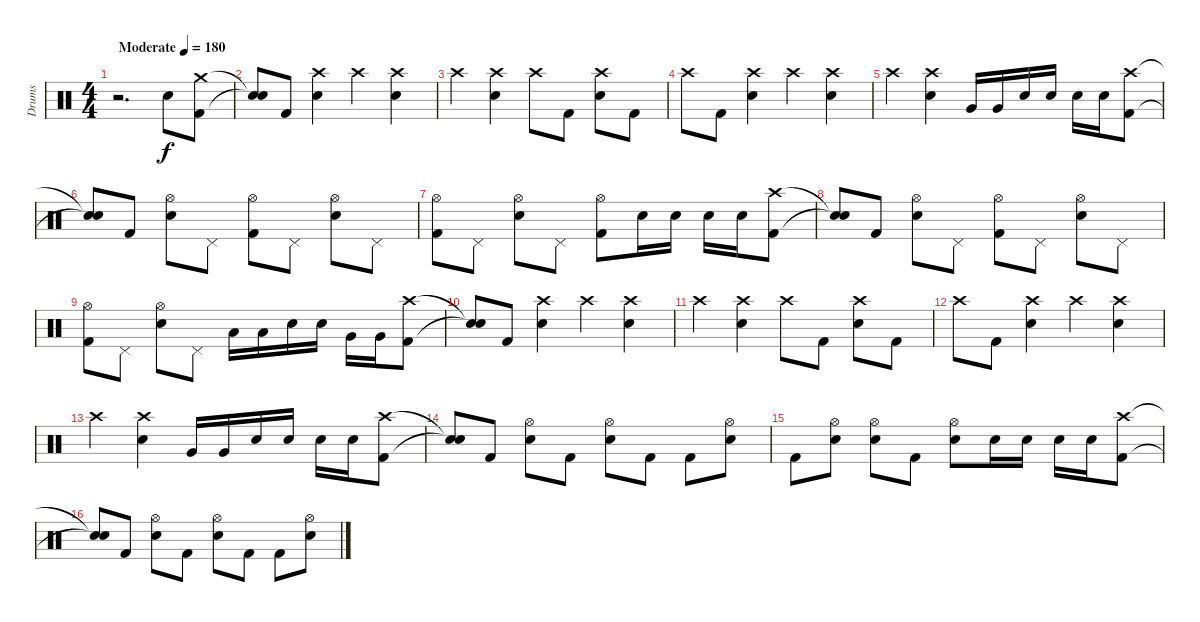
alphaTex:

\track ("Drums" "Drums") {instrument percussion}
\staff {score}
\articulation defaults
\ts (4 4)
\tempo (180 "Moderate")
\clef neutral
\ks c
r.2{d dy f} "Electric Snare (hit)".8 ("Crash medium (hit)" "Kick (hit) 2").8 |
("Snare (hit)"{t} "Snare (hit)"{t}).8 "Kick (hit) 2".8 ("Crash high (hit)" "Electric Snare (hit)").4 "Crash high (hit)".4 ("Crash high (hit)" "Electric Snare (hit)").4 |
"Crash high (hit)".4 ("Crash high (hit)" "Electric Snare (hit)").4 "Crash high (hit)".8 "Kick (hit) 2".8 ("Crash high (hit)" "Electric Snare (hit)").8 "Kick (hit) 2".8 |
"Crash high (hit)".8 "Kick (hit) 2".8 ("Crash high (hit)" "Electric Snare (hit)").4 "Crash high (hit)".4 ("Crash high (hit)" "Electric Snare (hit)").4 |
"Crash high (hit)".4 ("Crash high (hit)" "Electric Snare (hit)").4 "Very Low Tom (hit)".16 "Very Low Tom (hit)".16 "Electric Snare (hit)".16 "Electric Snare (hit)".16 "Electric Snare (hit)".16 "Electric Snare (hit)".16 ("Crash high (hit)" "Kick (hit) 2").8 |
("Snare (hit)"{t} "Snare (hit)"{t}).8 "Kick (hit) 2".8 ("Hi-Hat (open)" "Electric Snare (hit)").8 "Pedal Hi-Hat (hit)".8 ("Hi-Hat (open)" "Kick (hit) 2").8 "Pedal Hi-Hat (hit)".8 ("Hi-Hat (open)" "Electric Snare (hit)").8 "Pedal Hi-Hat (hit)".8 |
("Hi-Hat (open)" "Kick (hit) 2").8 "Pedal Hi-Hat (hit)".8 ("Hi-Hat (open)" "Electric Snare (hit)").8 "Pedal Hi-Hat (hit)".8 ("Hi-Hat (open)" "Kick (hit) 2").8 "Electric Snare (hit)".16 "Electric Snare (hit)".16 "Electric Snare (hit)".16 "Electric Snare (hit)".16 ("Crash high (hit)" "Kick (hit) 2").8 |
("Snare (hit)"{t} "Snare (hit)"{t}).8 "Kick (hit) 2".8 ("Hi-Hat (open)" "Electric Snare (hit)").8 "Pedal Hi-Hat (hit)".8 ("Hi-Hat (open)" "Kick (hit) 2").8 "Pedal Hi-Hat (hit)".8 ("Hi-Hat (open)" "Electric Snare (hit)").8 "Pedal Hi-Hat (hit)".8 |
("Hi-Hat (open)" "Kick (hit) 2").8 "Pedal Hi-Hat (hit)".8 ("Hi-Hat (open)" "Electric Snare (hit)").8 "Pedal Hi-Hat (hit)".8 "Low Tom (hit)".16 "Low Tom (hit)".16 "Electric Snare (hit)".16 "Electric Snare (hit)".16 "Very Low Tom (hit)".16 "Very Low Tom (hit)".16 ("Crash high (hit)" "Kick (hit) 2").8 |
("Snare (hit)"{t} "Snare (hit)"{t}).8 "Kick (hit) 2".8 ("Crash high (hit)" "Electric Snare (hit)").4 "Crash high (hit)".4 ("Crash high (hit)" "Electric Snare (hit)").4 |
"Crash high (hit)".4 ("Crash high (hit)" "Electric Snare (hit)").4 "Crash high (hit)".8 "Kick (hit) 2".8 ("Crash high (hit)" "Electric Snare (hit)").8 "Kick (hit) 2".8 |
"Crash high (hit)".8 "Kick (hit) 2".8 ("Crash high (hit)" "Electric Snare (hit)").4 "Crash high (hit)".4 ("Crash high (hit)" "Electric Snare (hit)").4 |
"Crash high (hit)".4 ("Crash high (hit)" "Electric Snare (hit)").4 "Very Low Tom (hit)".16 "Very Low Tom (hit)".16 "Electric Snare (hit)".16 "Electric Snare (hit)".16 "Electric Snare (hit)".16 "Electric Snare (hit)".16 ("Crash high (hit)" "Kick (hit) 2").8 |
("Snare (hit)"{t} "Snare (hit)"{t}).8 "Kick (hit) 2".8 ("Hi-Hat (open)" "Electric Snare (hit)").8 "Kick (hit) 2".8 ("Hi-Hat (open)" "Electric Snare (hit)").8 "Kick (hit) 2".8 "Kick (hit) 2".8 ("Hi-Hat (open)" "Electric Snare (hit)").8 |
"Kick (hit) 2".8 ("Hi-Hat (open)" "Electric Snare (hit)").8 ("Hi-Hat (open)" "Electric Snare (hit)").8 "Kick (hit) 2".8 ("Hi-Hat (open)" "Electric Snare (hit)").8 "Electric Snare (hit)".16 "Electric Snare (hit)".16 "Electric Snare (hit)".16 "Electric Snare (hit)".16 ("Crash high (hit)" "Kick (hit) 2").8 |
("Snare (hit)"{t} "Snare (hit)"{t}).8 "Kick (hit) 2".8 ("Hi-Hat (open)" "Electric Snare (hit)").8 "Kick (hit) 2".8 ("Hi-Hat (open)" "Electric Snare (hit)").8 "Kick (hit) 2".8 "Kick (hit) 2".8 ("Hi-Hat (open)" "Electric Snare (hit)").8
